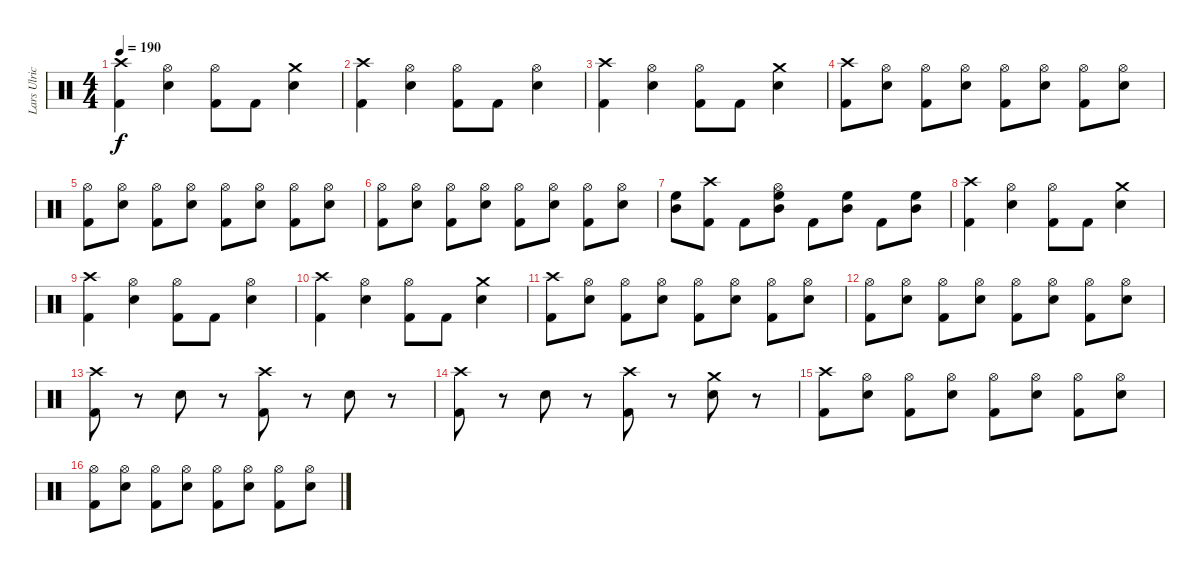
\track ("Lars Ulrich" "Lars Ulric") {instrument percussion}
\staff {score}
\articulation defaults
\ts (4 4)
\tempo 190
\clef neutral
\ks c
("Crash high (hit)" "Kick (hit) 2").4{dy f} ("Hi-Hat (open)" "Snare (hit) 2").4 ("Hi-Hat (open)" "Kick (hit) 2").8 "Kick (hit) 2".8 ("Crash medium (hit)" "Snare (hit) 2").4 |
("Crash high (hit)" "Kick (hit) 2").4 ("Hi-Hat (open)" "Snare (hit) 2").4 ("Hi-Hat (open)" "Kick (hit) 2").8 "Kick (hit) 2".8 ("Hi-Hat (open)" "Snare (hit) 2").4 |
("Crash high (hit)" "Kick (hit) 2").4 ("Hi-Hat (open)" "Snare (hit) 2").4 ("Hi-Hat (open)" "Kick (hit) 2").8 "Kick (hit) 2".8 ("Crash medium (hit)" "Snare (hit) 2").4 |
("Crash high (hit)" "Kick (hit) 2").8 ("Hi-Hat (open)" "Snare (hit) 2").8 ("Hi-Hat (open)" "Kick (hit) 2").8 ("Hi-Hat (open)" "Snare (hit) 2").8 ("Hi-Hat (open)" "Kick (hit) 2").8 ("Hi-Hat (open)" "Snare (hit) 2").8 ("Hi-Hat (open)" "Kick (hit) 2").8 ("Hi-Hat (open)" "Snare (hit) 2").8 |
("Hi-Hat (open)" "Kick (hit) 2").8 ("Hi-Hat (open)" "Snare (hit) 2").8 ("Hi-Hat (open)" "Kick (hit) 2").8 ("Hi-Hat (open)" "Snare (hit) 2").8 ("Hi-Hat (open)" "Kick (hit) 2").8 ("Hi-Hat (open)" "Snare (hit) 2").8 ("Hi-Hat (open)" "Kick (hit) 2").8 ("Hi-Hat (open)" "Snare (hit) 2").8 |
("Hi-Hat (open)" "Kick (hit) 2").8 ("Hi-Hat (open)" "Snare (hit) 2").8 ("Hi-Hat (open)" "Kick (hit) 2").8 ("Hi-Hat (open)" "Snare (hit) 2").8 ("Hi-Hat (open)" "Kick (hit) 2").8 ("Hi-Hat (open)" "Snare (hit) 2").8 ("Hi-Hat (open)" "Kick (hit) 2").8 ("Hi-Hat (open)" "Snare (hit) 2").8 |
("Mid Tom (hit)" "High Floor Tom (hit)").8 ("Crash high (hit)" "Kick (hit) 2").8 "Kick (hit) 2".8 ("Hi-Hat (open)" "Mid Tom (hit)" "High Floor Tom (hit)").8 "Kick (hit) 2".8 ("Mid Tom (hit)" "High Floor Tom (hit)").8 "Kick (hit) 2".8 ("Mid Tom (hit)" "High Floor Tom (hit)").8 |
("Crash high (hit)" "Kick (hit) 2").4 ("Hi-Hat (open)" "Snare (hit) 2").4 ("Hi-Hat (open)" "Kick (hit) 2").8 "Kick (hit) 2".8 ("Crash medium (hit)" "Snare (hit) 2").4 |
("Crash high (hit)" "Kick (hit) 2").4 ("Hi-Hat (open)" "Snare (hit) 2").4 ("Hi-Hat (open)" "Kick (hit) 2").8 "Kick (hit) 2".8 ("Hi-Hat (open)" "Snare (hit) 2").4 |
("Crash high (hit)" "Kick (hit) 2").4 ("Hi-Hat (open)" "Snare (hit) 2").4 ("Hi-Hat (open)" "Kick (hit) 2").8 "Kick (hit) 2".8 ("Crash medium (hit)" "Snare (hit) 2").4 |
("Crash high (hit)" "Kick (hit) 2").8 ("Hi-Hat (open)" "Snare (hit) 2").8 ("Hi-Hat (open)" "Kick (hit) 2").8 ("Hi-Hat (open)" "Snare (hit) 2").8 ("Hi-Hat (open)" "Kick (hit) 2").8 ("Hi-Hat (open)" "Snare (hit) 2").8 ("Hi-Hat (open)" "Kick (hit) 2").8 ("Hi-Hat (open)" "Snare (hit) 2").8 |
("Hi-Hat (open)" "Kick (hit) 2").8 ("Hi-Hat (open)" "Snare (hit) 2").8 ("Hi-Hat (open)" "Kick (hit) 2").8 ("Hi-Hat (open)" "Snare (hit) 2").8 ("Hi-Hat (open)" "Kick (hit) 2").8 ("Hi-Hat (open)" "Snare (hit) 2").8 ("Hi-Hat (open)" "Kick (hit) 2").8 ("Hi-Hat (open)" "Snare (hit) 2").8 |
("Crash high (hit)" "Kick (hit) 2").8 r.8 "Snare (hit) 2".8 r.8 ("Crash high (hit)" "Kick (hit) 2").8 r.8 "Snare (hit) 2".8 r.8 |
("Crash high (hit)" "Kick (hit) 2").8 r.8 "Snare (hit) 2".8 r.8 ("Crash high (hit)" "Kick (hit) 2").8 r.8 ("Crash medium (hit)" "Snare (hit) 2").8 r.8 |
("Crash high (hit)" "Kick (hit) 2").8 ("Hi-Hat (open)" "Snare (hit) 2").8 ("Hi-Hat (open)" "Kick (hit) 2").8 ("Hi-Hat (open)" "Snare (hit) 2").8 ("Hi-Hat (open)" "Kick (hit) 2").8 ("Hi-Hat (open)" "Snare (hit) 2").8 ("Hi-Hat (open)" "Kick (hit) 2").8 ("Hi-Hat (open)" "Snare (hit) 2").8 |
("Hi-Hat (open)" "Kick (hit) 2").8 ("Hi-Hat (open)" "Snare (hit) 2").8 ("Hi-Hat (open)" "Kick (hit) 2").8 ("Hi-Hat (open)" "Snare (hit) 2").8 ("Hi-Hat (open)" "Kick (hit) 2").8 ("Hi-Hat (open)" "Snare (hit) 2").8 ("Hi-Hat (open)" "Kick (hit) 2").8 ("Hi-Hat (open)" "Snare (hit) 2").8
